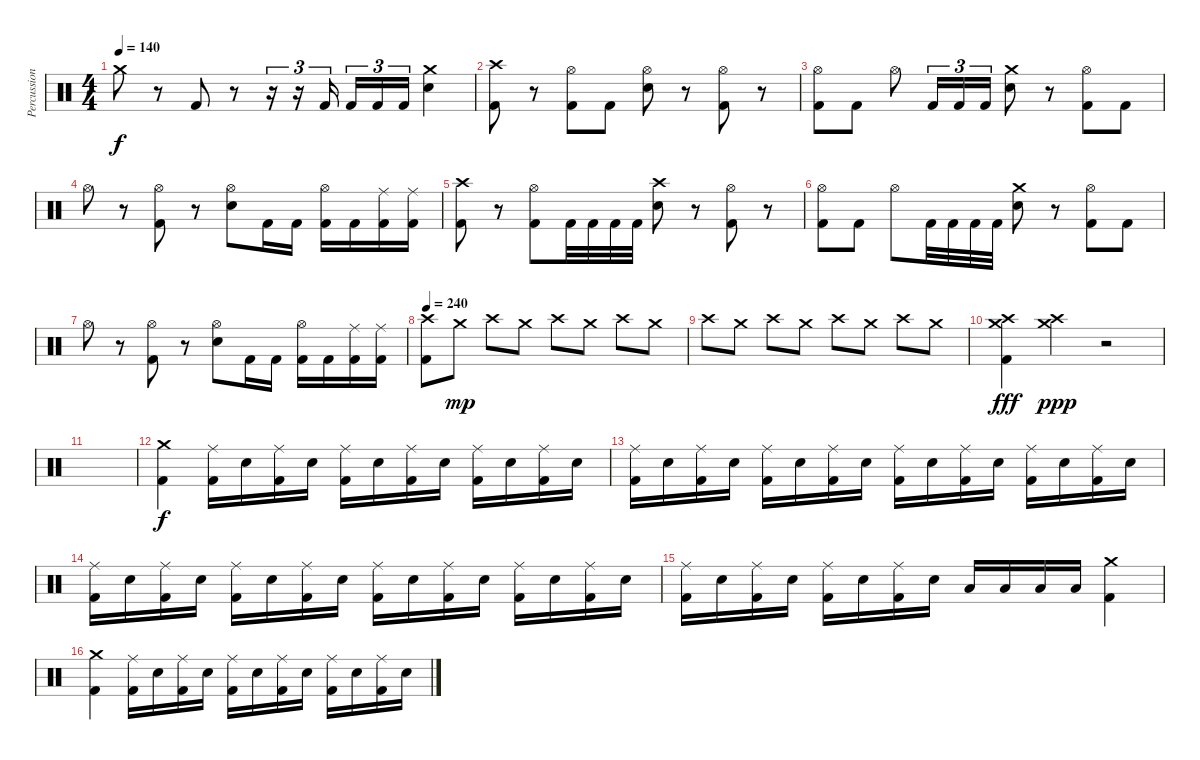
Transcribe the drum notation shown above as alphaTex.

\track ("Percussion" "Percussion") {solo instrument percussion}
\staff {score}
\articulation defaults
\ts (4 4)
\tempo 140
\clef neutral
\ks c "Crash medium (hit)".8{dy f}
r.8 "Kick (hit) 2".8 r.8 r.16{tu (3 2)} r.16{tu (3 2)} "Kick (hit) 2".16{tu (3 2) beam splitsecondary} "Kick (hit) 2".16{tu (3 2)} "Kick (hit) 2".16{tu (3 2)} "Kick (hit) 2".16{tu (3 2)} ("Crash medium (hit)" "Electric Snare (hit)").4 |
("Crash high (hit)" "Kick (hit) 2").8 r.8 ("Hi-Hat (open)" "Kick (hit) 2").8 "Kick (hit) 2".8 ("Hi-Hat (open)" "Electric Snare (hit)").8 r.8 ("Hi-Hat (open)" "Kick (hit) 2").8 r.8 |
("Hi-Hat (open)" "Kick (hit) 2").8 "Kick (hit) 2".8 "Hi-Hat (open)".8 "Kick (hit) 2".16{tu (3 2)} "Kick (hit) 2".16{tu (3 2)} "Kick (hit) 2".16{tu (3 2)} ("Crash medium (hit)" "Electric Snare (hit)").8 r.8 ("Hi-Hat (open)" "Kick (hit) 2").8 "Kick (hit) 2".8 |
"Hi-Hat (open)".8 r.8 ("Hi-Hat (open)" "Kick (hit) 2").8 r.8 ("Hi-Hat (open)" "Electric Snare (hit)").8 "Kick (hit) 2".16 "Kick (hit) 2".16 ("Hi-Hat (open)" "Kick (hit) 2").16 "Kick (hit) 2".16 ("Ride (middle)" "Kick (hit) 2").16 ("Ride (middle)" "Kick (hit) 2").16 |
("Crash high (hit)" "Kick (hit) 2").8 r.8 ("Hi-Hat (open)" "Kick (hit) 2").8 "Kick (hit) 2".32 "Kick (hit) 2".32 "Kick (hit) 2".32 "Kick (hit) 2".32 ("Crash high (hit)" "Electric Snare (hit)").8 r.8 ("Hi-Hat (open)" "Kick (hit) 2").8 r.8 |
("Hi-Hat (open)" "Kick (hit) 2").8 "Kick (hit) 2".8 "Hi-Hat (open)".8 "Kick (hit) 2".32 "Kick (hit) 2".32 "Kick (hit) 2".32 "Kick (hit) 2".32 ("Crash medium (hit)" "Electric Snare (hit)").8 r.8 ("Hi-Hat (open)" "Kick (hit) 2").8 "Kick (hit) 2".8 |
"Hi-Hat (open)".8 r.8 ("Hi-Hat (open)" "Kick (hit) 2").8 r.8 ("Hi-Hat (open)" "Electric Snare (hit)").8 "Kick (hit) 2".16 "Kick (hit) 2".16 ("Hi-Hat (open)" "Kick (hit) 2").16 "Kick (hit) 2".16 ("Ride (middle)" "Kick (hit) 2").16 ("Ride (middle)" "Kick (hit) 2").16 |
\tempo 240
("Crash high (hit)" "Kick (hit) 2").8 "Crash medium (hit)".8{dy mp} "Crash high (hit)".8 "Crash medium (hit)".8 "Crash high (hit)".8 "Crash medium (hit)".8 "Crash high (hit)".8 "Crash medium (hit)".8 |
"Crash high (hit)".8 "Crash medium (hit)".8 "Crash high (hit)".8 "Crash medium (hit)".8 "Crash high (hit)".8 "Crash medium (hit)".8 "Crash high (hit)".8 "Crash medium (hit)".8 |
("Crash medium (hit)" "Crash high (hit)" "Kick (hit) 2").4{dy fff} ("Crash medium (hit)" "Crash high (hit)").4{dy ppp} r.2 |
|
("Crash medium (hit)" "Kick (hit) 2").4{dy f} ("Ride (middle)" "Kick (hit) 2").16 "Electric Snare (hit)".16 ("Ride (middle)" "Kick (hit) 2").16 "Electric Snare (hit)".16 ("Ride (middle)" "Kick (hit) 2").16 "Electric Snare (hit)".16 ("Ride (middle)" "Kick (hit) 2").16 "Electric Snare (hit)".16 ("Ride (middle)" "Kick (hit) 2").16 "Electric Snare (hit)".16 ("Ride (middle)" "Kick (hit) 2").16 "Electric Snare (hit)".16 |
("Ride (middle)" "Kick (hit) 2").16 "Electric Snare (hit)".16 ("Ride (middle)" "Kick (hit) 2").16 "Electric Snare (hit)".16 ("Ride (middle)" "Kick (hit) 2").16 "Electric Snare (hit)".16 ("Ride (middle)" "Kick (hit) 2").16 "Electric Snare (hit)".16 ("Ride (middle)" "Kick (hit) 2").16 "Electric Snare (hit)".16 ("Ride (middle)" "Kick (hit) 2").16 "Electric Snare (hit)".16 ("Ride (middle)" "Kick (hit) 2").16 "Electric Snare (hit)".16 ("Ride (middle)" "Kick (hit) 2").16 "Electric Snare (hit)".16 |
("Ride (middle)" "Kick (hit) 2").16 "Electric Snare (hit)".16 ("Ride (middle)" "Kick (hit) 2").16 "Electric Snare (hit)".16 ("Ride (middle)" "Kick (hit) 2").16 "Electric Snare (hit)".16 ("Ride (middle)" "Kick (hit) 2").16 "Electric Snare (hit)".16 ("Ride (middle)" "Kick (hit) 2").16 "Electric Snare (hit)".16 ("Ride (middle)" "Kick (hit) 2").16 "Electric Snare (hit)".16 ("Ride (middle)" "Kick (hit) 2").16 "Electric Snare (hit)".16 ("Ride (middle)" "Kick (hit) 2").16 "Electric Snare (hit)".16 |
("Ride (middle)" "Kick (hit) 2").16 "Electric Snare (hit)".16 ("Ride (middle)" "Kick (hit) 2").16 "Electric Snare (hit)".16 ("Ride (middle)" "Kick (hit) 2").16 "Electric Snare (hit)".16 ("Ride (middle)" "Kick (hit) 2").16 "Electric Snare (hit)".16 "Low Tom (hit)".16 "Low Tom (hit)".16 "Low Tom (hit)".16 "Low Tom (hit)".16 ("Crash medium (hit)" "Kick (hit) 2").4 |
("Crash medium (hit)" "Kick (hit) 2").4 ("Ride (middle)" "Kick (hit) 2").16 "Electric Snare (hit)".16 ("Ride (middle)" "Kick (hit) 2").16 "Electric Snare (hit)".16 ("Ride (middle)" "Kick (hit) 2").16 "Electric Snare (hit)".16 ("Ride (middle)" "Kick (hit) 2").16 "Electric Snare (hit)".16 ("Ride (middle)" "Kick (hit) 2").16 "Electric Snare (hit)".16 ("Ride (middle)" "Kick (hit) 2").16 "Electric Snare (hit)".16
